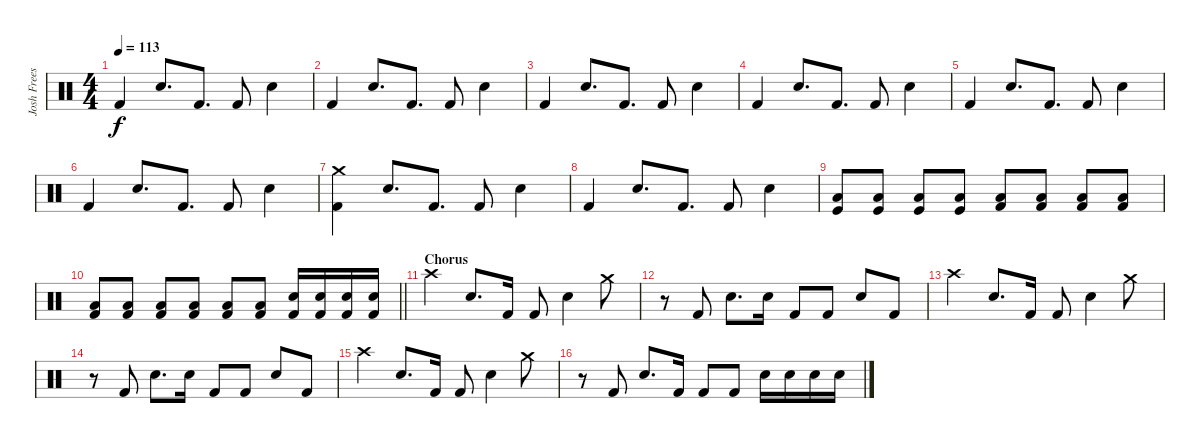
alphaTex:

\track ("Josh Freese (Studio Drummer)" "Josh Frees") {instrument percussion}
\staff {score}
\articulation defaults
\ts (4 4)
\tempo 113
\clef neutral
\ks c "Kick (hit) 2".4{dy f} "Electric Snare (hit)".8{d} "Kick (hit) 2".8{d} "Kick (hit) 2".8 "Electric Snare (hit)".4
|
"Kick (hit) 2".4 "Electric Snare (hit)".8{d} "Kick (hit) 2".8{d} "Kick (hit) 2".8 "Electric Snare (hit)".4 |
"Kick (hit) 2".4 "Electric Snare (hit)".8{d} "Kick (hit) 2".8{d} "Kick (hit) 2".8 "Electric Snare (hit)".4 |
"Kick (hit) 2".4 "Electric Snare (hit)".8{d} "Kick (hit) 2".8{d} "Kick (hit) 2".8 "Electric Snare (hit)".4 |
"Kick (hit) 2".4 "Electric Snare (hit)".8{d} "Kick (hit) 2".8{d} "Kick (hit) 2".8 "Electric Snare (hit)".4 |
"Kick (hit) 2".4 "Electric Snare (hit)".8{d} "Kick (hit) 2".8{d} "Kick (hit) 2".8 "Electric Snare (hit)".4 |
("Crash medium (hit)" "Kick (hit) 2").4 "Electric Snare (hit)".8{d} "Kick (hit) 2".8{d} "Kick (hit) 2".8 "Electric Snare (hit)".4 |
"Kick (hit) 2".4 "Electric Snare (hit)".8{d} "Kick (hit) 2".8{d} "Kick (hit) 2".8 "Electric Snare (hit)".4 |
("Kick (hit)" "Low Floor Tom (hit)").8 ("Kick (hit)" "Low Floor Tom (hit)").8 ("Kick (hit)" "Low Floor Tom (hit)").8 ("Kick (hit)" "Low Floor Tom (hit)").8 ("Kick (hit) 2" "Low Floor Tom (hit)").8 ("Kick (hit) 2" "Low Floor Tom (hit)").8 ("Kick (hit) 2" "Low Floor Tom (hit)").8 ("Kick (hit) 2" "Low Floor Tom (hit)").8 |
\barLineRight lightlight
("Kick (hit) 2" "Low Floor Tom (hit)").8 ("Kick (hit) 2" "Low Floor Tom (hit)").8 ("Kick (hit) 2" "Low Floor Tom (hit)").8 ("Kick (hit) 2" "Low Floor Tom (hit)").8 ("Kick (hit) 2" "Low Floor Tom (hit)").8 ("Kick (hit) 2" "Low Floor Tom (hit)").8 ("Electric Snare (hit)" "Kick (hit) 2").16 ("Electric Snare (hit)" "Kick (hit) 2").16 ("Electric Snare (hit)" "Kick (hit) 2").16 ("Electric Snare (hit)" "Kick (hit) 2").16 |
\section ("" "Chorus")
"Crash high (hit)".4 "Electric Snare (hit)".8{d} "Kick (hit) 2".16 "Kick (hit) 2".8 "Electric Snare (hit)".4 "Crash medium (hit)".8 |
r.8 "Kick (hit) 2".8 "Electric Snare (hit)".8{d} "Electric Snare (hit)".16 "Kick (hit) 2".8 "Kick (hit) 2".8 "Electric Snare (hit)".8 "Kick (hit) 2".8 |
"Crash high (hit)".4 "Electric Snare (hit)".8{d} "Kick (hit) 2".16 "Kick (hit) 2".8 "Electric Snare (hit)".4 "Crash medium (hit)".8 |
r.8 "Kick (hit) 2".8 "Electric Snare (hit)".8{d} "Electric Snare (hit)".16 "Kick (hit) 2".8 "Kick (hit) 2".8 "Electric Snare (hit)".8 "Kick (hit) 2".8 |
"Crash high (hit)".4 "Electric Snare (hit)".8{d} "Kick (hit) 2".16 "Kick (hit) 2".8 "Electric Snare (hit)".4 "Crash medium (hit)".8 |
r.8 "Kick (hit) 2".8 "Electric Snare (hit)".8{d} "Kick (hit) 2".16 "Kick (hit) 2".8 "Kick (hit) 2".8 "Electric Snare (hit)".16 "Electric Snare (hit)".16 "Electric Snare (hit)".16 "Electric Snare (hit)".16
